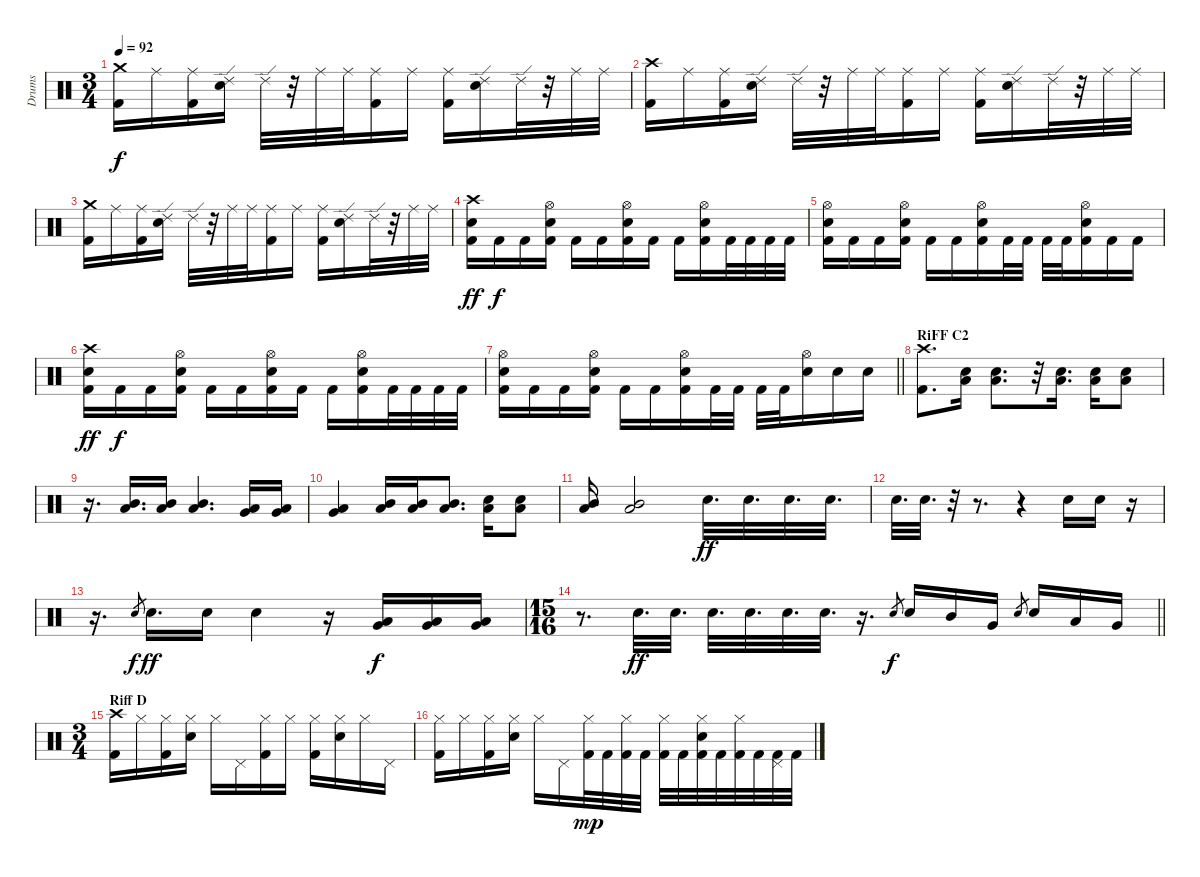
\track ("Drums" "Drums") {instrument percussion}
\staff {score}
\articulation defaults
\ts (3 4)
\tempo 92
\clef neutral
\ks c
("Crash medium (hit)" "Kick (hit) 2").16{dy f} "Ride (middle)".16 ("Ride (middle)" "Kick (hit) 2").16 ("Ride (edge) 2" "Electric Snare (hit)").16 "Ride (edge) 2".32 r.32 "Ride (middle)".32 "Ride (middle)".32 ("Ride (middle)" "Kick (hit) 2").16 "Ride (middle)".16 ("Ride (middle)" "Kick (hit) 2").16 ("Ride (edge) 2" "Electric Snare (hit)").16 "Ride (edge) 2".32 r.32 "Ride (middle)".32 "Ride (middle)".32 |
("Crash high (hit)" "Kick (hit) 2").16 "Ride (middle)".16 ("Ride (middle)" "Kick (hit) 2").16 ("Ride (edge) 2" "Electric Snare (hit)").16 "Ride (edge) 2".32 r.32 "Ride (middle)".32 "Ride (middle)".32 ("Ride (middle)" "Kick (hit) 2").16 "Ride (middle)".16 ("Ride (middle)" "Kick (hit) 2").16 ("Ride (edge) 2" "Electric Snare (hit)").16 "Ride (edge) 2".32 r.32 "Ride (middle)".32 "Ride (middle)".32 |
("Crash medium (hit)" "Kick (hit) 2").16 "Ride (middle)".16 ("Ride (middle)" "Kick (hit) 2").16 ("Ride (edge) 2" "Electric Snare (hit)").16 "Ride (edge) 2".32 r.32 "Ride (middle)".32 "Ride (middle)".32 ("Ride (middle)" "Kick (hit) 2").16 "Ride (middle)".16 ("Ride (middle)" "Kick (hit) 2").16 ("Ride (edge) 2" "Electric Snare (hit)").16 "Ride (edge) 2".32 r.32 "Ride (middle)".32 "Ride (middle)".32 |
("Crash high (hit)" "Electric Snare (hit)" "Kick (hit) 2").16{dy ff} "Kick (hit) 2".16{dy f} "Kick (hit) 2".16 ("Hi-Hat (open)" "Electric Snare (hit)" "Kick (hit) 2").16 "Kick (hit) 2".16 "Kick (hit) 2".16 ("Hi-Hat (open)" "Electric Snare (hit)" "Kick (hit) 2").16 "Kick (hit) 2".16 "Kick (hit) 2".16 ("Hi-Hat (open)" "Electric Snare (hit)" "Kick (hit) 2").16 "Kick (hit) 2".32 "Kick (hit) 2".32 "Kick (hit) 2".32 "Kick (hit) 2".32 |
("Hi-Hat (open)" "Electric Snare (hit)" "Kick (hit) 2").16 "Kick (hit) 2".16 "Kick (hit) 2".16 ("Hi-Hat (open)" "Electric Snare (hit)" "Kick (hit) 2").16 "Kick (hit) 2".16 "Kick (hit) 2".16 ("Hi-Hat (open)" "Electric Snare (hit)" "Kick (hit) 2").16 "Kick (hit) 2".32 "Kick (hit) 2".32 "Kick (hit) 2".32 "Kick (hit) 2".32 ("Hi-Hat (open)" "Electric Snare (hit)" "Kick (hit) 2").16 "Kick (hit) 2".16 "Kick (hit) 2".16 |
("Crash high (hit)" "Electric Snare (hit)" "Kick (hit) 2").16{dy ff} "Kick (hit) 2".16{dy f} "Kick (hit) 2".16 ("Hi-Hat (open)" "Electric Snare (hit)" "Kick (hit) 2").16 "Kick (hit) 2".16 "Kick (hit) 2".16 ("Hi-Hat (open)" "Electric Snare (hit)" "Kick (hit) 2").16 "Kick (hit) 2".16 "Kick (hit) 2".16 ("Hi-Hat (open)" "Electric Snare (hit)" "Kick (hit) 2").16 "Kick (hit) 2".32 "Kick (hit) 2".32 "Kick (hit) 2".32 "Kick (hit) 2".32 |
\barLineRight lightlight
("Hi-Hat (open)" "Electric Snare (hit)" "Kick (hit) 2").16 "Kick (hit) 2".16 "Kick (hit) 2".16 ("Hi-Hat (open)" "Electric Snare (hit)" "Kick (hit) 2").16 "Kick (hit) 2".16 "Kick (hit) 2".16 ("Hi-Hat (open)" "Electric Snare (hit)" "Kick (hit) 2").16 "Kick (hit) 2".32 "Kick (hit) 2".32 "Kick (hit) 2".32 "Kick (hit) 2".32 ("Hi-Hat (open)" "Electric Snare (hit)").16 "Electric Snare (hit)".16 "Electric Snare (hit)".16 |
\section ("" "RiFF C2")
("Crash high (hit)" "Kick (hit) 2").8{d} ("Low Tom (hit)" "Electric Snare (hit)").16 ("Low Tom (hit)" "Electric Snare (hit)").8{d} r.32 ("Low Tom (hit)" "Electric Snare (hit)").16{d} ("Low Tom (hit)" "Electric Snare (hit)").16 ("Low Tom (hit)" "Electric Snare (hit)").8 |
r.16{d} ("Mid Tom (hit)" "Low Tom (hit)").16{d} ("Mid Tom (hit)" "Low Tom (hit)").16 ("Mid Tom (hit)" "Low Tom (hit)").4{d} ("Low Tom (hit)" "Very Low Tom (hit)").16 ("Low Tom (hit)" "Very Low Tom (hit)").16 |
("Low Tom (hit)" "Very Low Tom (hit)").4 ("Mid Tom (hit)" "Low Tom (hit)").16 ("Mid Tom (hit)" "Low Tom (hit)").16 ("Mid Tom (hit)" "Low Tom (hit)").8{d} ("Low Tom (hit)" "Electric Snare (hit)").16 ("Low Tom (hit)" "Electric Snare (hit)").8 |
("Low Tom (hit)" "Mid Tom (hit)").16 ("Low Tom (hit)" "Mid Tom (hit)").2 "Electric Snare (hit)".32{d dy ff} "Electric Snare (hit)".32{d} "Electric Snare (hit)".32{d} "Electric Snare (hit)".32{d} |
"Electric Snare (hit)".32{d} "Electric Snare (hit)".32{d} r.32 r.8{d} r.4 "Electric Snare (hit)".16 "Electric Snare (hit)".16 r.16 |
r.16{d} "Electric Snare (hit)".8{gr dy f} "Electric Snare (hit)".16{d dy ff} "Electric Snare (hit)".16 "Electric Snare (hit)".4 r.16 ("Low Tom (hit)" "Very Low Tom (hit)").16{dy f} ("Low Tom (hit)" "Very Low Tom (hit)").16 ("Low Tom (hit)" "Very Low Tom (hit)").16 |
\ts (15 16)
\barLineRight lightlight
r.8{d} "Electric Snare (hit)".32{d dy ff} "Electric Snare (hit)".32{d} "Electric Snare (hit)".32{d} "Electric Snare (hit)".32{d} "Electric Snare (hit)".32{d} "Electric Snare (hit)".32{d} r.16{d} "Electric Snare (hit)".8{gr dy f} "Electric Snare (hit)".16 "Mid Tom (hit)".16 "Very Low Tom (hit)".16 "Electric Snare (hit)".8{gr} "Electric Snare (hit)".16 "Low Tom (hit)".16 "Very Low Tom (hit)".16 |
\ts (3 4)
\section ("" "Riff D")
("Crash high (hit)" "Kick (hit) 2").16 "Hi-Hat (closed)".16 ("Hi-Hat (closed)" "Kick (hit) 2").16 ("Hi-Hat (closed)" "Electric Snare (hit)").16 "Hi-Hat (closed)".16 "Pedal Hi-Hat (hit)".16 ("Hi-Hat (closed)" "Kick (hit) 2").16 "Hi-Hat (closed)".16 ("Hi-Hat (closed)" "Kick (hit) 2").16 ("Hi-Hat (closed)" "Electric Snare (hit)").16 "Hi-Hat (closed)".16 "Pedal Hi-Hat (hit)".16 |
("Hi-Hat (closed)" "Kick (hit) 2").16 "Hi-Hat (closed)".16 ("Hi-Hat (closed)" "Kick (hit) 2").16 ("Hi-Hat (closed)" "Electric Snare (hit)").16 "Hi-Hat (closed)".16 "Pedal Hi-Hat (hit)".16 ("Hi-Hat (closed)" "Kick (hit) 2").32{dy mp} "Kick (hit) 2".32 ("Hi-Hat (closed)" "Kick (hit) 2").32 "Kick (hit) 2".32 ("Hi-Hat (closed)" "Kick (hit) 2").32 "Kick (hit) 2".32 ("Hi-Hat (closed)" "Electric Snare (hit)" "Kick (hit) 2").32 "Kick (hit) 2".32 ("Hi-Hat (closed)" "Kick (hit) 2").32 "Kick (hit) 2".32 ("Pedal Hi-Hat (hit)" "Kick (hit) 2").32 "Kick (hit) 2".32
